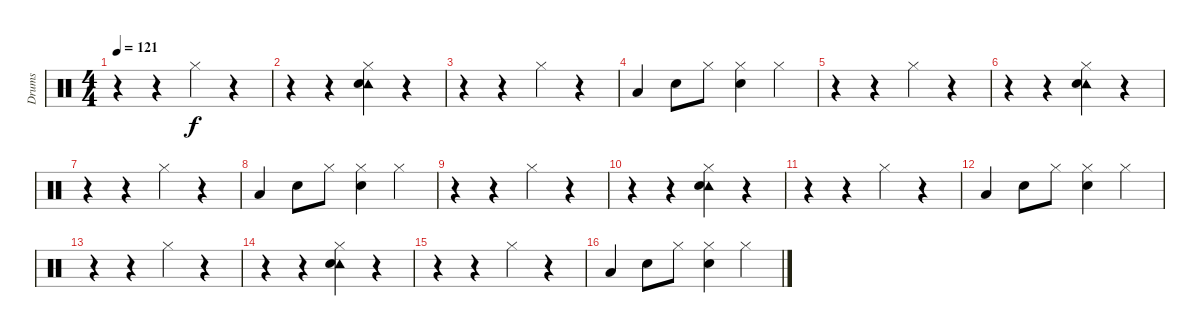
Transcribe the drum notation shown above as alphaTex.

\track ("Drums" "Drums") {instrument percussion}
\staff {score}
\articulation defaults
\ts (4 4)
\tempo 121
\clef neutral
\ks c
r.4{dy f} r.4 "Hi-Hat (closed)".4 r.4 |
r.4 r.4 ("Hi-Hat (closed)" "Tambourine (hit)" "Snare (hit) 2").4 r.4 |
r.4 r.4 "Hi-Hat (closed)".4 r.4 |
"Low Floor Tom (hit)".4 "Electric Snare (hit)".8 "Hi-Hat (closed)".8 ("Hi-Hat (closed)" "Snare (hit) 2").4 "Hi-Hat (closed)".4 |
r.4 r.4 "Hi-Hat (closed)".4 r.4 |
r.4 r.4 ("Hi-Hat (closed)" "Tambourine (hit)" "Snare (hit) 2").4 r.4 |
r.4 r.4 "Hi-Hat (closed)".4 r.4 |
"Low Floor Tom (hit)".4 "Electric Snare (hit)".8 "Hi-Hat (closed)".8 ("Hi-Hat (closed)" "Snare (hit) 2").4 "Hi-Hat (closed)".4 |
r.4 r.4 "Hi-Hat (closed)".4 r.4 |
r.4 r.4 ("Hi-Hat (closed)" "Tambourine (hit)" "Snare (hit) 2").4 r.4 |
r.4 r.4 "Hi-Hat (closed)".4 r.4 |
"Low Floor Tom (hit)".4 "Electric Snare (hit)".8 "Hi-Hat (closed)".8 ("Hi-Hat (closed)" "Snare (hit) 2").4 "Hi-Hat (closed)".4 |
r.4 r.4 "Hi-Hat (closed)".4 r.4 |
r.4 r.4 ("Hi-Hat (closed)" "Tambourine (hit)" "Snare (hit) 2").4 r.4 |
r.4 r.4 "Hi-Hat (closed)".4 r.4 |
"Low Floor Tom (hit)".4 "Electric Snare (hit)".8 "Hi-Hat (closed)".8 ("Hi-Hat (closed)" "Snare (hit) 2").4 "Hi-Hat (closed)".4
